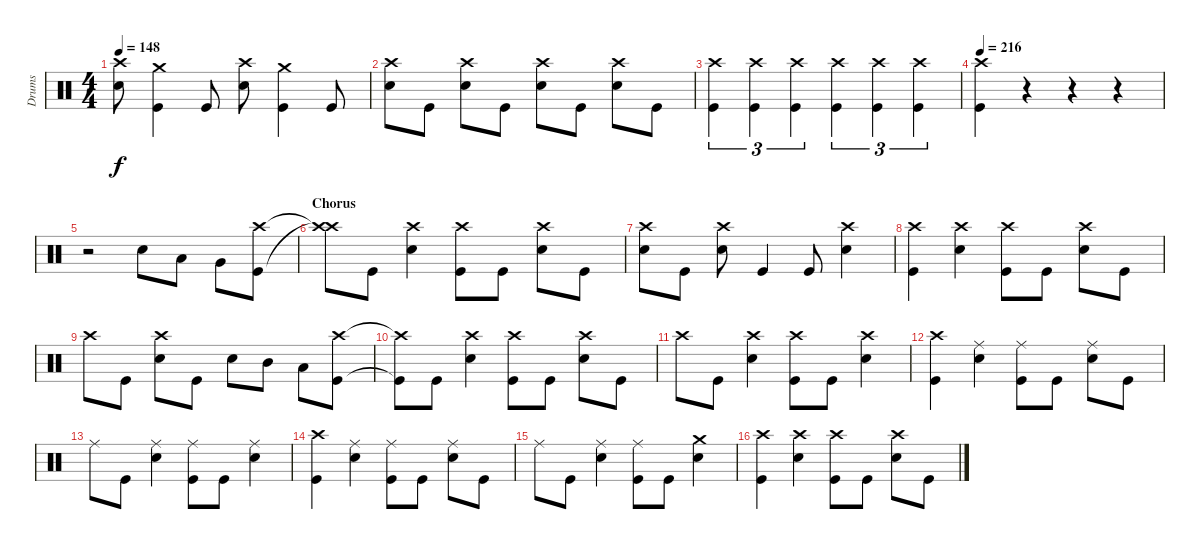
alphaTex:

\track ("Drums" "Drums") {instrument percussion}
\staff {score}
\articulation defaults
\ts (4 4)
\tempo 148
\clef neutral
\ks c
("Crash high (hit)" "Snare (hit) 2").8{dy f} ("Crash medium (hit)" "Kick (hit)").4 "Kick (hit)".8 ("Crash high (hit)" "Snare (hit) 2").8 ("Crash medium (hit)" "Kick (hit)").4 "Kick (hit)".8 |
("Crash high (hit)" "Snare (hit) 2").8 "Kick (hit)".8 ("Crash high (hit)" "Snare (hit) 2").8 "Kick (hit)".8 ("Crash high (hit)" "Snare (hit) 2").8 "Kick (hit)".8 ("Crash high (hit)" "Snare (hit) 2").8 "Kick (hit)".8 |
("Crash high (hit)" "Kick (hit)").4{tu (3 2)} ("Crash high (hit)" "Kick (hit)").4{tu (3 2)} ("Crash high (hit)" "Kick (hit)").4{tu (3 2)} ("Crash high (hit)" "Kick (hit)").4{tu (3 2)} ("Crash high (hit)" "Kick (hit)").4{tu (3 2)} ("Crash high (hit)" "Kick (hit)").4{tu (3 2)} |
\tempo 216
("Crash high (hit)" "Kick (hit)").4 r.4 r.4 r.4 |
r.2 "Snare (hit) 2".8 "Low Tom (hit)".8 "Very Low Tom (hit)".8 ("Crash high (hit)" "Kick (hit)").8 |
\section ("" "Chorus")
("Crash high (hit)"{t} "Crash high (hit)"{t}).8 "Kick (hit)".8 ("Crash high (hit)" "Snare (hit) 2").4 ("Crash high (hit)" "Kick (hit)").8 "Kick (hit)".8 ("Crash high (hit)" "Snare (hit) 2").8 "Kick (hit)".8 |
("Crash high (hit)" "Snare (hit) 2").8 "Kick (hit)".8 ("Crash high (hit)" "Snare (hit) 2").8 "Kick (hit)".4 "Kick (hit)".8 ("Crash high (hit)" "Snare (hit) 2").4 |
("Crash high (hit)" "Kick (hit)").4 ("Crash high (hit)" "Snare (hit) 2").4 ("Crash high (hit)" "Kick (hit)").8 "Kick (hit)".8 ("Crash high (hit)" "Snare (hit) 2").8 "Kick (hit)".8 |
"Crash high (hit)".8 "Kick (hit)".8 ("Crash high (hit)" "Snare (hit) 2").8 "Kick (hit)".8 "Snare (hit) 2".8 "Mid Tom (hit)".8 "Low Tom (hit)".8 ("Crash high (hit)" "Kick (hit)").8 |
("Crash high (hit)"{t} "Kick (hit)"{t}).8 "Kick (hit)".8 ("Crash high (hit)" "Snare (hit) 2").4 ("Crash high (hit)" "Kick (hit)").8 "Kick (hit)".8 ("Crash high (hit)" "Snare (hit) 2").8 "Kick (hit)".8 |
"Crash high (hit)".8 "Kick (hit)".8 ("Crash high (hit)" "Snare (hit) 2").4 ("Crash high (hit)" "Kick (hit)").8 "Kick (hit)".8 ("Crash high (hit)" "Snare (hit) 2").4 |
("Crash high (hit)" "Kick (hit)").4 ("Ride (middle)" "Snare (hit) 2").4 ("Ride (middle)" "Kick (hit)").8 "Kick (hit)".8 ("Ride (middle)" "Snare (hit) 2").8 "Kick (hit)".8 |
"Ride (middle)".8 "Kick (hit)".8 ("Ride (middle)" "Snare (hit) 2").4 ("Ride (middle)" "Kick (hit)").8 "Kick (hit)".8 ("Ride (middle)" "Snare (hit) 2").4 |
("Crash high (hit)" "Kick (hit)").4 ("Ride (middle)" "Snare (hit) 2").4 ("Ride (middle)" "Kick (hit)").8 "Kick (hit)".8 ("Ride (middle)" "Snare (hit) 2").8 "Kick (hit)".8 |
"Ride (middle)".8 "Kick (hit)".8 ("Ride (middle)" "Snare (hit) 2").4 ("Ride (middle)" "Kick (hit)").8 "Kick (hit)".8 ("Crash medium (hit)" "Snare (hit) 2").4 |
("Crash high (hit)" "Kick (hit)").4 ("Crash high (hit)" "Snare (hit) 2").4 ("Crash high (hit)" "Kick (hit)").8 "Kick (hit)".8 ("Crash high (hit)" "Snare (hit) 2").8 "Kick (hit)".8
